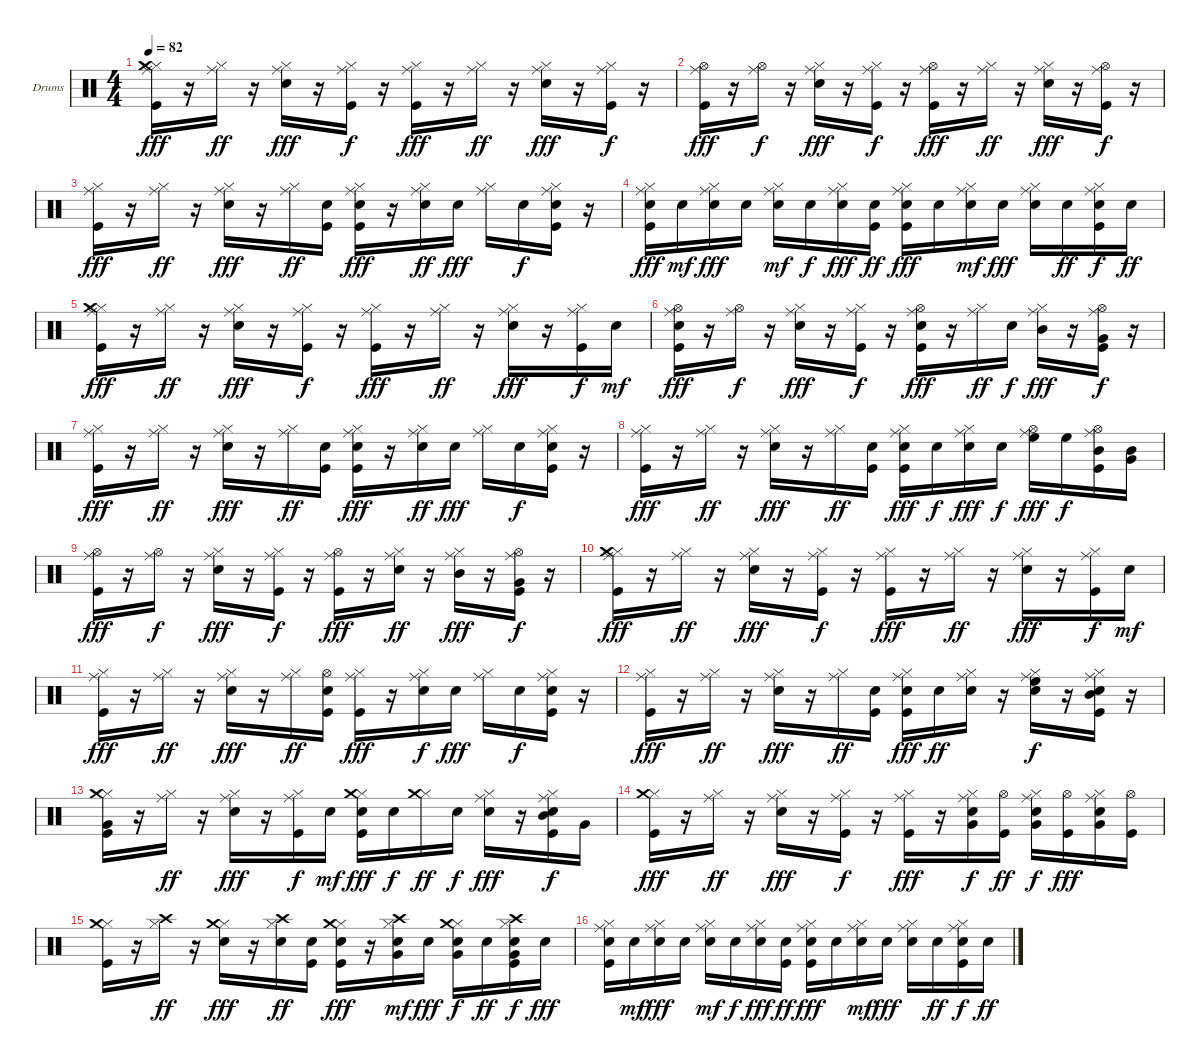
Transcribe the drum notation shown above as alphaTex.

\bracketExtendMode groupsimilarinstruments
\firstSystemTrackNameOrientation horizontal
\otherSystemsTrackNameOrientation horizontal
\track ("Drumkit" "Drums") {instrument percussion}
\staff {score}
\articulation defaults
\ts (4 4)
\tempo 82
\clef neutral
\ks c
("Kick (hit)" "Hi-Hat (closed)" "Ride (middle)" "Crash medium (hit)").16{dy fff} r.16 ("Hi-Hat (closed)" "Ride (middle)").16{dy ff} r.16 ("Snare (hit) 2" "Hi-Hat (closed)" "Ride (middle)").16{dy fff} r.16 ("Kick (hit)" "Hi-Hat (closed)" "Ride (middle)").16{dy f} r.16 ("Kick (hit)" "Hi-Hat (closed)" "Ride (middle)").16{dy fff} r.16 ("Hi-Hat (closed)" "Ride (middle)").16{dy ff} r.16 ("Snare (hit) 2" "Hi-Hat (closed)" "Ride (middle)").16{dy fff} r.16 ("Kick (hit)" "Hi-Hat (closed)" "Ride (middle)").16{dy f} r.16 |
("Kick (hit)" "Hi-Hat (open)" "Ride (middle)").16{dy fff} r.16 ("Hi-Hat (open)" "Ride (middle)").16{dy f} r.16 ("Snare (hit) 2" "Hi-Hat (closed)" "Ride (middle)").16{dy fff} r.16 ("Kick (hit)" "Hi-Hat (closed)" "Ride (middle)").16{dy f} r.16 ("Kick (hit)" "Hi-Hat (open)" "Ride (middle)").16{dy fff} r.16 ("Hi-Hat (closed)" "Ride (middle)").16{dy ff} r.16 ("Snare (hit) 2" "Hi-Hat (closed)" "Ride (middle)").16{dy fff} r.16 ("Kick (hit)" "Hi-Hat (open)" "Ride (middle)").16{dy f} r.16 |
("Kick (hit)" "Hi-Hat (closed)" "Ride (middle)").16{dy fff} r.16 ("Hi-Hat (closed)" "Ride (middle)").16{dy ff} r.16 ("Snare (hit) 2" "Hi-Hat (closed)" "Ride (middle)").16{dy fff} r.16 ("Hi-Hat (closed)" "Ride (middle)").16{dy ff} ("Kick (hit)" "Snare (hit) 2").16 ("Kick (hit)" "Snare (hit) 2" "Hi-Hat (closed)" "Ride (middle)").16{dy fff} r.16 ("Snare (hit) 2" "Hi-Hat (closed)" "Ride (middle)").16{dy ff} "Snare (hit) 2".16{dy fff} ("Hi-Hat (closed)" "Ride (middle)").16 "Snare (hit) 2".16{dy f} ("Kick (hit)" "Snare (hit) 2" "Hi-Hat (closed)" "Ride (middle)").16 r.16 |
("Kick (hit)" "Snare (hit) 2" "Hi-Hat (closed)" "Ride (middle)").16{dy fff} "Snare (hit) 2".16{dy mf} ("Snare (hit) 2" "Hi-Hat (closed)" "Ride (middle)").16{dy fff} "Snare (hit) 2".16 ("Snare (hit) 2" "Hi-Hat (closed)" "Ride (middle)").16{dy mf} "Snare (hit) 2".16{dy f} ("Snare (hit) 2" "Hi-Hat (closed)" "Ride (middle)").16{dy fff} ("Kick (hit)" "Snare (hit) 2").16{dy ff} ("Kick (hit)" "Snare (hit) 2" "Hi-Hat (closed)" "Ride (middle)").16{dy fff} "Snare (hit) 2".16 ("Snare (hit) 2" "Hi-Hat (closed)" "Ride (middle)").16{dy mf} "Snare (hit) 2".16{dy fff} ("Snare (hit) 2" "Hi-Hat (closed)" "Ride (middle)").16 "Snare (hit) 2".16{dy ff} ("Kick (hit)" "Snare (hit) 2" "Hi-Hat (closed)" "Ride (middle)").16{dy f} "Snare (hit) 2".16{dy ff} |
("Kick (hit)" "Hi-Hat (closed)" "Ride (middle)" "Crash medium (hit)").16{dy fff} r.16 ("Hi-Hat (closed)" "Ride (middle)").16{dy ff} r.16 ("Snare (hit) 2" "Hi-Hat (closed)" "Ride (middle)").16{dy fff} r.16 ("Kick (hit)" "Hi-Hat (closed)" "Ride (middle)").16{dy f} r.16 ("Kick (hit)" "Hi-Hat (closed)" "Ride (middle)").16{dy fff} r.16 ("Hi-Hat (closed)" "Ride (middle)").16{dy ff} r.16 ("Snare (hit) 2" "Hi-Hat (closed)" "Ride (middle)").16{dy fff} r.16 ("Kick (hit)" "Hi-Hat (closed)" "Ride (middle)").16{dy f} "Snare (hit) 2".16{dy mf} |
("Kick (hit)" "Snare (hit) 2" "Hi-Hat (open)" "Ride (middle)").16{dy fff} r.16 ("Hi-Hat (open)" "Ride (middle)").16{dy f} r.16 ("Snare (hit) 2" "Hi-Hat (closed)" "Ride (middle)").16{dy fff} r.16 ("Kick (hit)" "Hi-Hat (closed)" "Ride (middle)").16{dy f} r.16 ("Kick (hit)" "Snare (hit) 2" "Hi-Hat (open)" "Ride (middle)").16{dy fff} r.16 ("Hi-Hat (closed)" "Ride (middle)").16{dy ff} "Snare (hit) 2".16{dy f} ("Hi-Hat (closed)" "Ride (middle)" "Mid Tom (hit)").16{dy fff} r.16 ("Kick (hit)" "Hi-Hat (open)" "Ride (middle)" "Very Low Tom (hit)").16{dy f} r.16 |
("Kick (hit)" "Hi-Hat (closed)" "Ride (middle)").16{dy fff} r.16 ("Hi-Hat (closed)" "Ride (middle)").16{dy ff} r.16 ("Snare (hit) 2" "Hi-Hat (closed)" "Ride (middle)").16{dy fff} r.16 ("Hi-Hat (closed)" "Ride (middle)").16{dy ff} ("Kick (hit)" "Snare (hit) 2").16 ("Kick (hit)" "Snare (hit) 2" "Hi-Hat (closed)" "Ride (middle)").16{dy fff} r.16 ("Snare (hit) 2" "Hi-Hat (closed)" "Ride (middle)").16{dy ff} "Snare (hit) 2".16{dy fff} ("Hi-Hat (closed)" "Ride (middle)").16 "Snare (hit) 2".16{dy f} ("Kick (hit)" "Snare (hit) 2" "Hi-Hat (closed)" "Ride (middle)").16 r.16 |
("Kick (hit)" "Hi-Hat (closed)" "Ride (middle)").16{dy fff} r.16 ("Hi-Hat (closed)" "Ride (middle)").16{dy ff} r.16 ("Snare (hit) 2" "Hi-Hat (closed)" "Ride (middle)").16{dy fff} r.16 ("Hi-Hat (closed)" "Ride (middle)").16{dy ff} ("Kick (hit)" "Snare (hit) 2").16 ("Kick (hit)" "Snare (hit) 2" "Hi-Hat (closed)" "Ride (middle)").16{dy fff} "Snare (hit) 2".16{dy f} ("Snare (hit) 2" "Hi-Hat (closed)" "Ride (middle)").16{dy fff} "Snare (hit) 2".16{dy f} ("Hi-Hat (open)" "Ride (middle)" "High Floor Tom (hit)").16{dy fff} "High Floor Tom (hit)".16{dy f} ("Kick (hit)" "Hi-Hat (open)" "Ride (middle)" "Mid Tom (hit)").16 ("Mid Tom (hit)" "Very Low Tom (hit)").16 |
("Kick (hit)" "Hi-Hat (open)" "Ride (middle)").16{dy fff} r.16 ("Hi-Hat (open)" "Ride (middle)").16{dy f} r.16 ("Snare (hit) 2" "Hi-Hat (closed)" "Ride (middle)").16{dy fff} r.16 ("Kick (hit)" "Hi-Hat (closed)" "Ride (middle)").16{dy f} r.16 ("Kick (hit)" "Hi-Hat (open)" "Ride (middle)").16{dy fff} r.16 ("Snare (hit) 2" "Hi-Hat (closed)" "Ride (middle)").16{dy ff} r.16 ("Hi-Hat (closed)" "Ride (middle)" "Mid Tom (hit)").16{dy fff} r.16 ("Kick (hit)" "Hi-Hat (open)" "Ride (middle)" "Very Low Tom (hit)").16{dy f} r.16 |
("Kick (hit)" "Hi-Hat (closed)" "Ride (middle)" "Crash medium (hit)").16{dy fff} r.16 ("Hi-Hat (closed)" "Ride (middle)").16{dy ff} r.16 ("Snare (hit) 2" "Hi-Hat (closed)" "Ride (middle)").16{dy fff} r.16 ("Kick (hit)" "Hi-Hat (closed)" "Ride (middle)").16{dy f} r.16 ("Kick (hit)" "Hi-Hat (closed)" "Ride (middle)").16{dy fff} r.16 ("Hi-Hat (closed)" "Ride (middle)").16{dy ff} r.16 ("Snare (hit) 2" "Hi-Hat (closed)" "Ride (middle)").16{dy fff} r.16 ("Kick (hit)" "Hi-Hat (closed)" "Ride (middle)").16{dy f} "Snare (hit) 2".16{dy mf} |
("Kick (hit)" "Hi-Hat (closed)" "Ride (middle)").16{dy fff} r.16 ("Hi-Hat (closed)" "Ride (middle)").16{dy ff} r.16 ("Snare (hit) 2" "Hi-Hat (closed)" "Ride (middle)").16{dy fff} r.16 ("Hi-Hat (closed)" "Ride (middle)").16{dy ff} ("Kick (hit)" "Snare (hit) 2" "Hi-Hat (open)").16 ("Kick (hit)" "Hi-Hat (closed)" "Ride (middle)").16{dy fff} r.16 ("Snare (hit) 2" "Hi-Hat (closed)" "Ride (middle)").16{dy f} "Snare (hit) 2".16{dy fff} ("Hi-Hat (closed)" "Ride (middle)").16 "Snare (hit) 2".16{dy f} ("Kick (hit)" "Snare (hit) 2" "Hi-Hat (closed)" "Ride (middle)").16 r.16 |
("Kick (hit)" "Hi-Hat (closed)" "Ride (middle)").16{dy fff} r.16 ("Hi-Hat (closed)" "Ride (middle)").16{dy ff} r.16 ("Snare (hit) 2" "Hi-Hat (closed)" "Ride (middle)").16{dy fff} r.16 ("Hi-Hat (closed)" "Ride (middle)").16{dy ff} ("Kick (hit)" "Snare (hit) 2").16 ("Kick (hit)" "Snare (hit) 2" "Hi-Hat (closed)" "Ride (middle)").16{dy fff} "Snare (hit) 2".16{dy ff} ("Snare (hit) 2" "Hi-Hat (closed)" "Ride (middle)").16 r.16 ("Snare (hit) 2" "Hi-Hat (closed)" "Ride (middle)" "High Floor Tom (hit)").16{dy f} r.16 ("Snare (hit) 2" "Kick (hit)" "Hi-Hat (closed)" "Ride (middle)" "Mid Tom (hit)").16 r.16 |
("Very Low Tom (hit)" "Kick (hit)" "Hi-Hat (closed)" "Crash medium (hit)").16 r.16 ("Hi-Hat (closed)" "Ride (middle)").16{dy ff} r.16 ("Snare (hit) 2" "Hi-Hat (closed)" "Ride (middle)").16{dy fff} r.16 ("Kick (hit)" "Hi-Hat (closed)" "Ride (middle)").16{dy f} "Snare (hit) 2".16{dy mf} ("Kick (hit)" "Snare (hit) 2" "Hi-Hat (closed)" "Crash medium (hit)").16{dy fff} "Snare (hit) 2".16{dy f} ("Hi-Hat (closed)" "Crash medium (hit)").16{dy ff} "Snare (hit) 2".16{dy f} ("Snare (hit) 2" "Hi-Hat (closed)" "Ride (middle)").16{dy fff} r.16 ("Snare (hit) 2" "Kick (hit)" "Hi-Hat (closed)" "Ride (middle)" "Mid Tom (hit)").16{dy f} "Very Low Tom (hit)".16 |
("Kick (hit)" "Hi-Hat (closed)" "Crash medium (hit)").16{dy fff} r.16 ("Hi-Hat (closed)" "Ride (middle)").16{dy ff} r.16 ("Snare (hit) 2" "Hi-Hat (closed)" "Ride (middle)").16{dy fff} r.16 ("Kick (hit)" "Hi-Hat (closed)" "Ride (middle)").16{dy f} r.16 ("Kick (hit)" "Hi-Hat (closed)" "Ride (middle)").16{dy fff} r.16 ("Snare (hit) 2" "Hi-Hat (closed)" "Ride (middle)" "Very Low Tom (hit)").16{dy f} ("Kick (hit)" "Hi-Hat (open)").16{dy ff} ("Snare (hit) 2" "Hi-Hat (closed)" "Ride (middle)" "Very Low Tom (hit)").16{dy f} ("Kick (hit)" "Hi-Hat (open)").16{dy fff} ("Snare (hit) 2" "Hi-Hat (closed)" "Ride (middle)" "Very Low Tom (hit)").16 ("Kick (hit)" "Hi-Hat (open)").16 |
("Kick (hit)" "Hi-Hat (closed)" "Crash medium (hit)").16 r.16 ("Hi-Hat (closed)" "Crash high (hit)").16{dy ff} r.16 ("Snare (hit) 2" "Hi-Hat (closed)" "Crash medium (hit)").16{dy fff} r.16 ("Hi-Hat (closed)" "Crash high (hit)" "Snare (hit) 2").16{dy ff} ("Kick (hit)" "Snare (hit) 2").16 ("Kick (hit)" "Snare (hit) 2" "Hi-Hat (closed)" "Crash medium (hit)").16{dy fff} r.16 ("Snare (hit) 2" "Hi-Hat (closed)" "Crash high (hit)" "Very Low Tom (hit)").16{dy mf} "Snare (hit) 2".16{dy fff} ("Snare (hit) 2" "Hi-Hat (closed)" "Crash medium (hit)" "Very Low Tom (hit)").16{dy f} "Snare (hit) 2".16{dy ff} ("Kick (hit)" "Snare (hit) 2" "Hi-Hat (closed)" "Crash high (hit)" "Very Low Tom (hit)").16{dy f} "Snare (hit) 2".16{dy fff} |
("Kick (hit)" "Snare (hit) 2" "Hi-Hat (closed)" "Ride (middle)").16 "Snare (hit) 2".16{dy mf} ("Snare (hit) 2" "Hi-Hat (closed)" "Ride (middle)").16{dy fff} "Snare (hit) 2".16 ("Snare (hit) 2" "Hi-Hat (closed)" "Ride (middle)").16{dy mf} "Snare (hit) 2".16{dy f} ("Snare (hit) 2" "Hi-Hat (closed)" "Ride (middle)").16{dy fff} ("Kick (hit)" "Snare (hit) 2").16{dy ff} ("Kick (hit)" "Snare (hit) 2" "Hi-Hat (closed)" "Ride (middle)").16{dy fff} "Snare (hit) 2".16 ("Snare (hit) 2" "Hi-Hat (closed)" "Ride (middle)").16{dy mf} "Snare (hit) 2".16{dy fff} ("Snare (hit) 2" "Hi-Hat (closed)" "Ride (middle)").16 "Snare (hit) 2".16{dy ff} ("Kick (hit)" "Snare (hit) 2" "Hi-Hat (closed)" "Ride (middle)").16{dy f} "Snare (hit) 2".16{dy ff}
